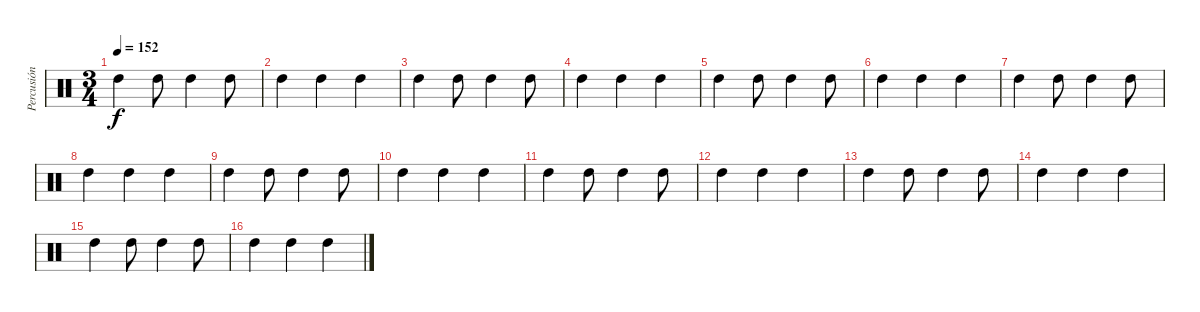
\track ("Percusión" "Percusión") {instrument percussion}
\staff {score}
\articulation defaults
\ts (3 4)
\tempo 152
\clef neutral
\ks c "High Tom (hit)".4{dy f} "High Tom (hit)".8 "High Tom (hit)".4 "High Tom (hit)".8
|
"High Tom (hit)".4 "High Tom (hit)".4 "High Tom (hit)".4 |
"High Tom (hit)".4 "High Tom (hit)".8 "High Tom (hit)".4 "High Tom (hit)".8 |
"High Tom (hit)".4 "High Tom (hit)".4 "High Tom (hit)".4 |
"High Tom (hit)".4 "High Tom (hit)".8 "High Tom (hit)".4 "High Tom (hit)".8 |
"High Tom (hit)".4 "High Tom (hit)".4 "High Tom (hit)".4 |
"High Tom (hit)".4 "High Tom (hit)".8 "High Tom (hit)".4 "High Tom (hit)".8 |
"High Tom (hit)".4 "High Tom (hit)".4 "High Tom (hit)".4 |
"High Tom (hit)".4 "High Tom (hit)".8 "High Tom (hit)".4 "High Tom (hit)".8 |
"High Tom (hit)".4 "High Tom (hit)".4 "High Tom (hit)".4 |
"High Tom (hit)".4 "High Tom (hit)".8 "High Tom (hit)".4 "High Tom (hit)".8 |
"High Tom (hit)".4 "High Tom (hit)".4 "High Tom (hit)".4 |
"High Tom (hit)".4 "High Tom (hit)".8 "High Tom (hit)".4 "High Tom (hit)".8 |
"High Tom (hit)".4 "High Tom (hit)".4 "High Tom (hit)".4 |
"High Tom (hit)".4 "High Tom (hit)".8 "High Tom (hit)".4 "High Tom (hit)".8 |
"High Tom (hit)".4 "High Tom (hit)".4 "High Tom (hit)".4
